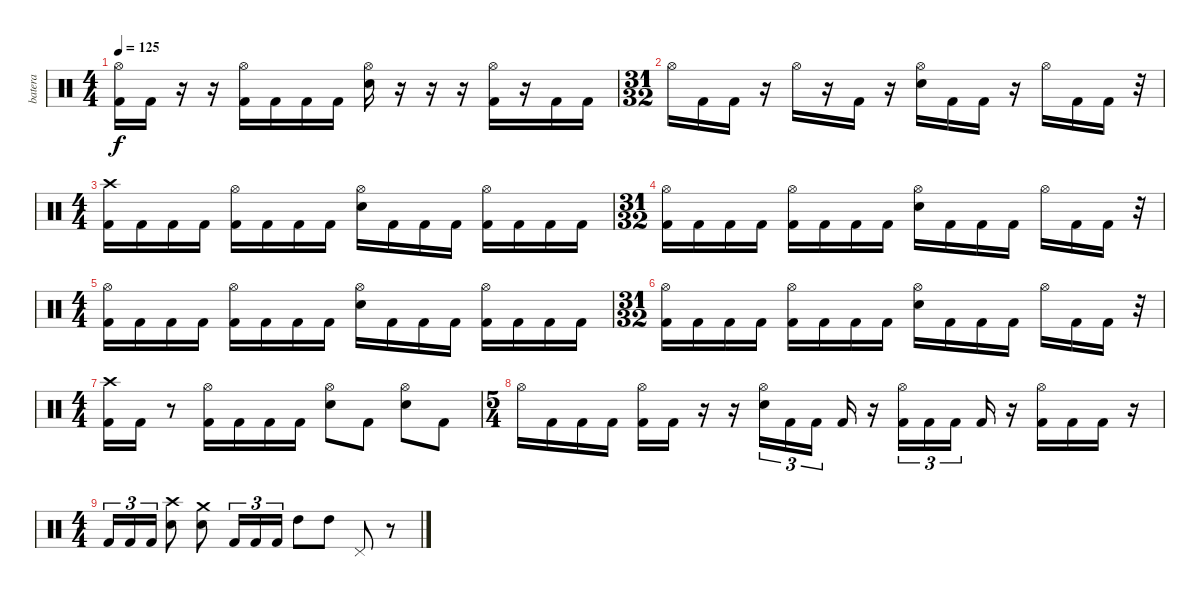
\track ("batera" "batera") {instrument percussion}
\staff {score}
\articulation defaults
\ts (4 4)
\tempo 125
\clef neutral
\ks c
("Hi-Hat (open)" "Kick (hit) 2").16{dy f} "Kick (hit) 2".16 r.16 r.16 ("Hi-Hat (open)" "Kick (hit) 2").16 "Kick (hit) 2".16 "Kick (hit) 2".16 "Kick (hit) 2".16 ("Hi-Hat (open)" "Electric Snare (hit)").16 r.16 r.16 r.16 ("Hi-Hat (open)" "Kick (hit) 2").16 r.16 "Kick (hit) 2".16 "Kick (hit) 2".16 |
\ts (31 32)
"Hi-Hat (open)".16 "Kick (hit) 2".16 "Kick (hit) 2".16 r.16 "Hi-Hat (open)".16 r.16 "Kick (hit) 2".16 r.16 ("Hi-Hat (open)" "Electric Snare (hit)").16 "Kick (hit) 2".16 "Kick (hit) 2".16 r.16 "Hi-Hat (open)".16 "Kick (hit) 2".16 "Kick (hit) 2".16 r.32 |
\ts (4 4)
("Crash high (hit)" "Kick (hit) 2").16 "Kick (hit) 2".16 "Kick (hit) 2".16 "Kick (hit) 2".16 ("Hi-Hat (open)" "Kick (hit) 2").16 "Kick (hit) 2".16 "Kick (hit) 2".16 "Kick (hit) 2".16 ("Hi-Hat (open)" "Electric Snare (hit)").16 "Kick (hit) 2".16 "Kick (hit) 2".16 "Kick (hit) 2".16 ("Hi-Hat (open)" "Kick (hit) 2").16 "Kick (hit) 2".16 "Kick (hit) 2".16 "Kick (hit) 2".16 |
\ts (31 32)
("Hi-Hat (open)" "Kick (hit) 2").16 "Kick (hit) 2".16 "Kick (hit) 2".16 "Kick (hit) 2".16 ("Hi-Hat (open)" "Kick (hit) 2").16 "Kick (hit) 2".16 "Kick (hit) 2".16 "Kick (hit) 2".16 ("Hi-Hat (open)" "Electric Snare (hit)").16 "Kick (hit) 2".16 "Kick (hit) 2".16 "Kick (hit) 2".16 "Hi-Hat (open)".16 "Kick (hit) 2".16 "Kick (hit) 2".16 r.32 |
\ts (4 4)
("Hi-Hat (open)" "Kick (hit) 2").16 "Kick (hit) 2".16 "Kick (hit) 2".16 "Kick (hit) 2".16 ("Hi-Hat (open)" "Kick (hit) 2").16 "Kick (hit) 2".16 "Kick (hit) 2".16 "Kick (hit) 2".16 ("Hi-Hat (open)" "Electric Snare (hit)").16 "Kick (hit) 2".16 "Kick (hit) 2".16 "Kick (hit) 2".16 ("Hi-Hat (open)" "Kick (hit) 2").16 "Kick (hit) 2".16 "Kick (hit) 2".16 "Kick (hit) 2".16 |
\ts (31 32)
("Hi-Hat (open)" "Kick (hit) 2").16 "Kick (hit) 2".16 "Kick (hit) 2".16 "Kick (hit) 2".16 ("Hi-Hat (open)" "Kick (hit) 2").16 "Kick (hit) 2".16 "Kick (hit) 2".16 "Kick (hit) 2".16 ("Hi-Hat (open)" "Electric Snare (hit)").16 "Kick (hit) 2".16 "Kick (hit) 2".16 "Kick (hit) 2".16 "Hi-Hat (open)".16 "Kick (hit) 2".16 "Kick (hit) 2".16 r.32 |
\ts (4 4)
("Crash high (hit)" "Kick (hit) 2").16 "Kick (hit) 2".16 r.8 ("Hi-Hat (open)" "Kick (hit) 2").16 "Kick (hit) 2".16 "Kick (hit) 2".16 "Kick (hit) 2".16 ("Hi-Hat (open)" "Electric Snare (hit)").8 "Kick (hit) 2".8 ("Hi-Hat (open)" "Electric Snare (hit)").8 "Kick (hit) 2".8 |
\ts (5 4)
"Hi-Hat (open)".16 "Kick (hit) 2".16 "Kick (hit) 2".16 "Kick (hit) 2".16 ("Hi-Hat (open)" "Kick (hit) 2").16 "Kick (hit) 2".16 r.16 r.16 ("Hi-Hat (open)" "Electric Snare (hit)").16{tu (3 2)} "Kick (hit) 2".16{tu (3 2)} "Kick (hit) 2".16{tu (3 2)} "Kick (hit) 2".16 r.16 ("Hi-Hat (open)" "Kick (hit) 2").16{tu (3 2)} "Kick (hit) 2".16{tu (3 2)} "Kick (hit) 2".16{tu (3 2)} "Kick (hit) 2".16 r.16 ("Hi-Hat (open)" "Kick (hit) 2").16 "Kick (hit) 2".16 "Kick (hit) 2".16 r.16 |
\ts (4 4)
"Kick (hit) 2".16{tu (3 2)} "Kick (hit) 2".16{tu (3 2)} "Kick (hit) 2".16{tu (3 2)} ("Crash high (hit)" "Electric Snare (hit)").8 ("Crash medium (hit)" "Electric Snare (hit)").8 "Kick (hit) 2".16{tu (3 2)} "Kick (hit) 2".16{tu (3 2)} "Kick (hit) 2".16{tu (3 2)} "High Tom (hit)".8 "High Tom (hit)".8 "Pedal Hi-Hat (hit)".8 r.8
